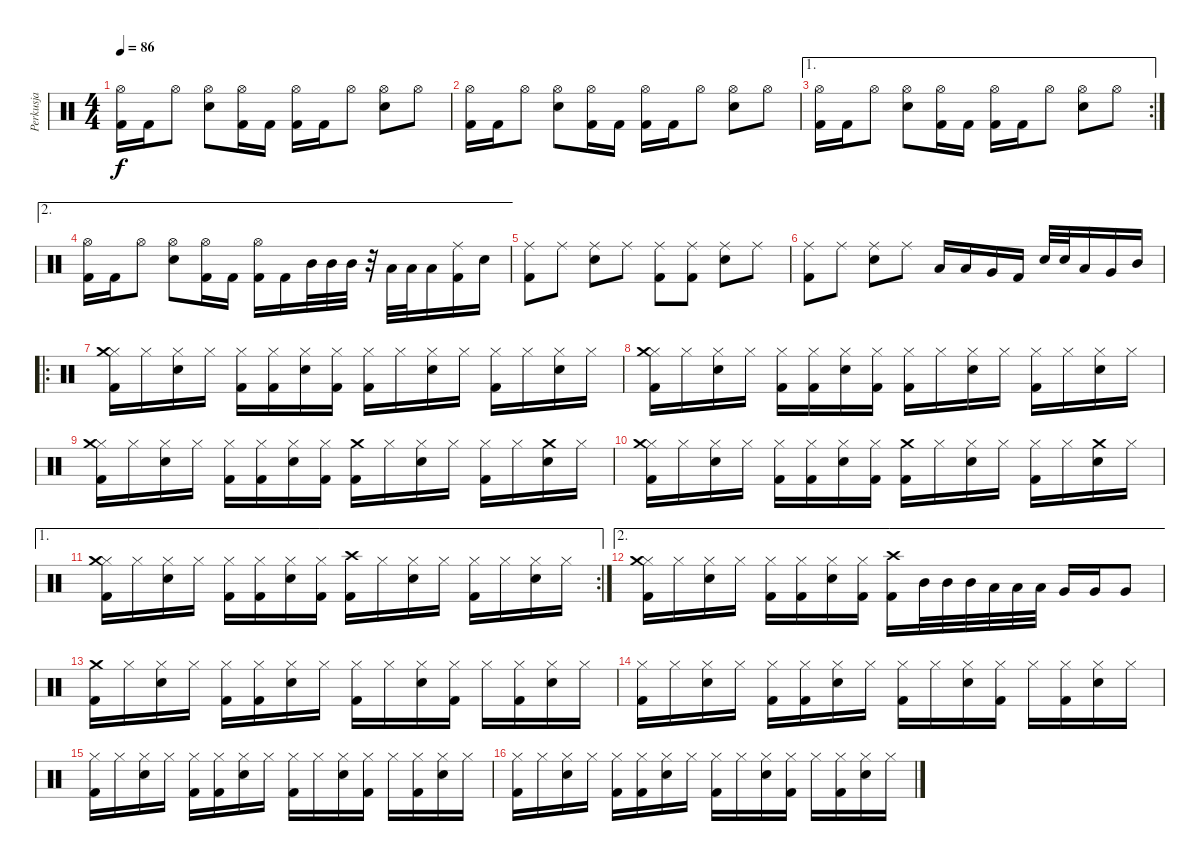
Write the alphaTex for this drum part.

\track ("Perkusja" "Perkusja") {instrument percussion}
\staff {score}
\articulation defaults
\ts (4 4)
\tempo 86
\clef neutral
\ks c
("Hi-Hat (open)" "Kick (hit) 2").16{dy f} "Kick (hit) 2".16 "Hi-Hat (open)".8 ("Hi-Hat (open)" "Snare (hit) 2").8 ("Hi-Hat (open)" "Kick (hit) 2").16 "Kick (hit) 2".16 ("Hi-Hat (open)" "Kick (hit) 2").16 "Kick (hit) 2".16 "Hi-Hat (open)".8 ("Hi-Hat (open)" "Snare (hit) 2").8 "Hi-Hat (open)".8 |
("Hi-Hat (open)" "Kick (hit) 2").16 "Kick (hit) 2".16 "Hi-Hat (open)".8 ("Hi-Hat (open)" "Snare (hit) 2").8 ("Hi-Hat (open)" "Kick (hit) 2").16 "Kick (hit) 2".16 ("Hi-Hat (open)" "Kick (hit) 2").16 "Kick (hit) 2".16 "Hi-Hat (open)".8 ("Hi-Hat (open)" "Snare (hit) 2").8 "Hi-Hat (open)".8 |
\ae 1
\rc 2
("Hi-Hat (open)" "Kick (hit) 2").16 "Kick (hit) 2".16 "Hi-Hat (open)".8 ("Hi-Hat (open)" "Snare (hit) 2").8 ("Hi-Hat (open)" "Kick (hit) 2").16 "Kick (hit) 2".16 ("Hi-Hat (open)" "Kick (hit) 2").16 "Kick (hit) 2".16 "Hi-Hat (open)".8 ("Hi-Hat (open)" "Snare (hit) 2").8 "Hi-Hat (open)".8 |
\ae 2
("Hi-Hat (open)" "Kick (hit) 2").16 "Kick (hit) 2".16 "Hi-Hat (open)".8 ("Hi-Hat (open)" "Snare (hit) 2").8 ("Hi-Hat (open)" "Kick (hit) 2").16 "Kick (hit) 2".16 ("Hi-Hat (open)" "Kick (hit) 2").16 "Kick (hit) 2".16 "Mid Tom (hit)".32 "Mid Tom (hit)".32 "Mid Tom (hit)".32 r.32 "Low Tom (hit)".32 "Low Tom (hit)".32 "Low Tom (hit)".16 ("Ride (middle)" "Kick (hit) 2").16 "Snare (hit) 2".16 |
("Ride (middle)" "Kick (hit) 2").8 "Ride (middle)".8 ("Ride (middle)" "Snare (hit) 2").8 "Ride (middle)".8 ("Ride (middle)" "Kick (hit) 2").8 ("Ride (middle)" "Kick (hit) 2").8 ("Ride (middle)" "Snare (hit) 2").8 "Ride (middle)".8 |
("Ride (middle)" "Kick (hit) 2").8 "Ride (middle)".8 ("Ride (middle)" "Snare (hit) 2").8 "Ride (middle)".8 "Low Tom (hit)".16 "Low Tom (hit)".16 "Very Low Tom (hit)".16 "Kick (hit) 2".16 "Snare (hit) 2".32 "Snare (hit) 2".32 "Low Tom (hit)".16 "Very Low Tom (hit)".16 "Mid Tom (hit)".16 |
\ro
("Hi-Hat (closed)" "Crash medium (hit)" "Kick (hit) 2").16 "Hi-Hat (closed)".16 ("Hi-Hat (closed)" "Snare (hit) 2").16 "Hi-Hat (closed)".16 ("Hi-Hat (closed)" "Kick (hit) 2").16 ("Hi-Hat (closed)" "Kick (hit) 2").16 ("Hi-Hat (closed)" "Snare (hit) 2").16 ("Hi-Hat (closed)" "Kick (hit) 2").16 ("Hi-Hat (closed)" "Kick (hit) 2").16 "Hi-Hat (closed)".16 ("Hi-Hat (closed)" "Snare (hit) 2").16 "Hi-Hat (closed)".16 ("Hi-Hat (closed)" "Kick (hit) 2").16 "Hi-Hat (closed)".16 ("Hi-Hat (closed)" "Snare (hit) 2").16 "Hi-Hat (closed)".16 |
("Hi-Hat (closed)" "Crash medium (hit)" "Kick (hit) 2").16 "Hi-Hat (closed)".16 ("Hi-Hat (closed)" "Snare (hit) 2").16 "Hi-Hat (closed)".16 ("Hi-Hat (closed)" "Kick (hit) 2").16 ("Hi-Hat (closed)" "Kick (hit) 2").16 ("Hi-Hat (closed)" "Snare (hit) 2").16 ("Hi-Hat (closed)" "Kick (hit) 2").16 ("Hi-Hat (closed)" "Kick (hit) 2").16 "Hi-Hat (closed)".16 ("Hi-Hat (closed)" "Snare (hit) 2").16 "Hi-Hat (closed)".16 ("Hi-Hat (closed)" "Kick (hit) 2").16 "Hi-Hat (closed)".16 ("Hi-Hat (closed)" "Snare (hit) 2").16 "Hi-Hat (closed)".16 |
("Hi-Hat (closed)" "Crash medium (hit)" "Kick (hit) 2").16 "Hi-Hat (closed)".16 ("Hi-Hat (closed)" "Snare (hit) 2").16 "Hi-Hat (closed)".16 ("Hi-Hat (closed)" "Kick (hit) 2").16 ("Hi-Hat (closed)" "Kick (hit) 2").16 ("Hi-Hat (closed)" "Snare (hit) 2").16 ("Hi-Hat (closed)" "Kick (hit) 2").16 ("Crash medium (hit)" "Kick (hit) 2").16 "Hi-Hat (closed)".16 ("Hi-Hat (closed)" "Snare (hit) 2").16 "Hi-Hat (closed)".16 ("Hi-Hat (closed)" "Kick (hit) 2").16 "Hi-Hat (closed)".16 ("Crash medium (hit)" "Snare (hit) 2").16 "Hi-Hat (closed)".16 |
("Hi-Hat (closed)" "Crash medium (hit)" "Kick (hit) 2").16 "Hi-Hat (closed)".16 ("Hi-Hat (closed)" "Snare (hit) 2").16 "Hi-Hat (closed)".16 ("Hi-Hat (closed)" "Kick (hit) 2").16 ("Hi-Hat (closed)" "Kick (hit) 2").16 ("Hi-Hat (closed)" "Snare (hit) 2").16 ("Hi-Hat (closed)" "Kick (hit) 2").16 ("Crash medium (hit)" "Kick (hit) 2").16 "Hi-Hat (closed)".16 ("Hi-Hat (closed)" "Snare (hit) 2").16 "Hi-Hat (closed)".16 ("Hi-Hat (closed)" "Kick (hit) 2").16 "Hi-Hat (closed)".16 ("Crash medium (hit)" "Snare (hit) 2").16 "Hi-Hat (closed)".16 |
\ae 1
\rc 2
("Hi-Hat (closed)" "Crash medium (hit)" "Kick (hit) 2").16 "Hi-Hat (closed)".16 ("Hi-Hat (closed)" "Snare (hit) 2").16 "Hi-Hat (closed)".16 ("Hi-Hat (closed)" "Kick (hit) 2").16 ("Hi-Hat (closed)" "Kick (hit) 2").16 ("Hi-Hat (closed)" "Snare (hit) 2").16 ("Hi-Hat (closed)" "Kick (hit) 2").16 ("Crash high (hit)" "Kick (hit) 2").16 "Hi-Hat (closed)".16 ("Hi-Hat (closed)" "Snare (hit) 2").16 "Hi-Hat (closed)".16 ("Hi-Hat (closed)" "Kick (hit) 2").16 "Hi-Hat (closed)".16 ("Hi-Hat (closed)" "Snare (hit) 2").16 "Hi-Hat (closed)".16 |
\ae 2
("Hi-Hat (closed)" "Crash medium (hit)" "Kick (hit) 2").16 "Hi-Hat (closed)".16 ("Hi-Hat (closed)" "Snare (hit) 2").16 "Hi-Hat (closed)".16 ("Hi-Hat (closed)" "Kick (hit) 2").16 ("Hi-Hat (closed)" "Kick (hit) 2").16 ("Hi-Hat (closed)" "Snare (hit) 2").16 ("Hi-Hat (closed)" "Kick (hit) 2").16 ("Crash high (hit)" "Kick (hit) 2").16 "Mid Tom (hit)".32 "Mid Tom (hit)".32 "Mid Tom (hit)".32 "Low Tom (hit)".32 "Low Tom (hit)".32 "Low Tom (hit)".32 "Very Low Tom (hit)".16 "Very Low Tom (hit)".16 "Very Low Tom (hit)".8 |
("Crash medium (hit)" "Kick (hit) 2").16 "Hi-Hat (closed)".16 ("Hi-Hat (closed)" "Snare (hit) 2").16 "Hi-Hat (closed)".16 ("Hi-Hat (closed)" "Kick (hit) 2").16 ("Hi-Hat (closed)" "Kick (hit) 2").16 ("Hi-Hat (closed)" "Snare (hit) 2").16 "Hi-Hat (closed)".16 ("Hi-Hat (closed)" "Kick (hit) 2").16 "Hi-Hat (closed)".16 ("Hi-Hat (closed)" "Snare (hit) 2").16 ("Hi-Hat (closed)" "Kick (hit) 2").16 "Hi-Hat (closed)".16 ("Hi-Hat (closed)" "Kick (hit) 2").16 ("Hi-Hat (closed)" "Snare (hit) 2").16 "Hi-Hat (closed)".16 |
("Hi-Hat (closed)" "Kick (hit) 2").16 "Hi-Hat (closed)".16 ("Hi-Hat (closed)" "Snare (hit) 2").16 "Hi-Hat (closed)".16 ("Hi-Hat (closed)" "Kick (hit) 2").16 ("Hi-Hat (closed)" "Kick (hit) 2").16 ("Hi-Hat (closed)" "Snare (hit) 2").16 "Hi-Hat (closed)".16 ("Hi-Hat (closed)" "Kick (hit) 2").16 "Hi-Hat (closed)".16 ("Hi-Hat (closed)" "Snare (hit) 2").16 ("Hi-Hat (closed)" "Kick (hit) 2").16 "Hi-Hat (closed)".16 ("Hi-Hat (closed)" "Kick (hit) 2").16 ("Hi-Hat (closed)" "Snare (hit) 2").16 "Hi-Hat (closed)".16 |
("Hi-Hat (closed)" "Kick (hit) 2").16 "Hi-Hat (closed)".16 ("Hi-Hat (closed)" "Snare (hit) 2").16 "Hi-Hat (closed)".16 ("Hi-Hat (closed)" "Kick (hit) 2").16 ("Hi-Hat (closed)" "Kick (hit) 2").16 ("Hi-Hat (closed)" "Snare (hit) 2").16 "Hi-Hat (closed)".16 ("Hi-Hat (closed)" "Kick (hit) 2").16 "Hi-Hat (closed)".16 ("Hi-Hat (closed)" "Snare (hit) 2").16 ("Hi-Hat (closed)" "Kick (hit) 2").16 "Hi-Hat (closed)".16 ("Hi-Hat (closed)" "Kick (hit) 2").16 ("Hi-Hat (closed)" "Snare (hit) 2").16 "Hi-Hat (closed)".16 |
("Hi-Hat (closed)" "Kick (hit) 2").16 "Hi-Hat (closed)".16 ("Hi-Hat (closed)" "Snare (hit) 2").16 "Hi-Hat (closed)".16 ("Hi-Hat (closed)" "Kick (hit) 2").16 ("Hi-Hat (closed)" "Kick (hit) 2").16 ("Hi-Hat (closed)" "Snare (hit) 2").16 "Hi-Hat (closed)".16 ("Hi-Hat (closed)" "Kick (hit) 2").16 "Hi-Hat (closed)".16 ("Hi-Hat (closed)" "Snare (hit) 2").16 ("Hi-Hat (closed)" "Kick (hit) 2").16 "Hi-Hat (closed)".16 ("Hi-Hat (closed)" "Kick (hit) 2").16 ("Hi-Hat (closed)" "Snare (hit) 2").16 "Hi-Hat (closed)".16
